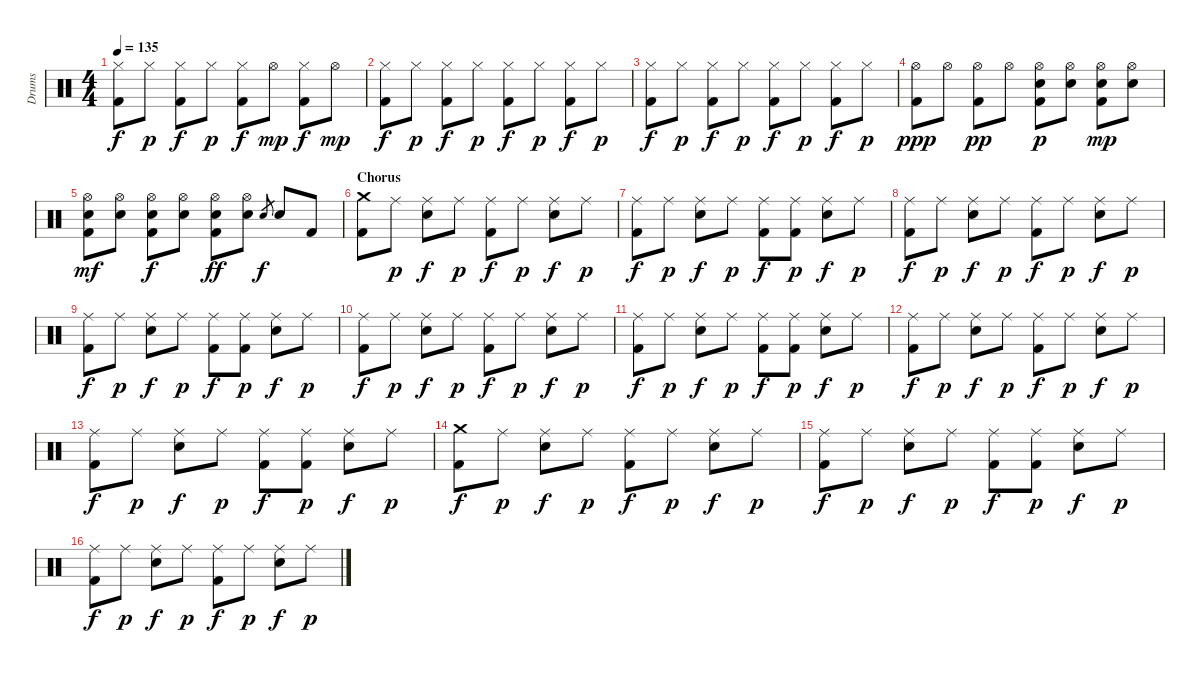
\track ("Drums" "Drums") {instrument percussion}
\staff {score}
\articulation defaults
\ts (4 4)
\tempo 135
\clef neutral
\ks c
("Hi-Hat (closed)" "Kick (hit) 2").8{dy f} "Hi-Hat (closed)".8{dy p} ("Hi-Hat (closed)" "Kick (hit) 2").8{dy f} "Hi-Hat (closed)".8{dy p} ("Hi-Hat (closed)" "Kick (hit) 2").8{dy f} "Hi-Hat (open)".8{dy mp} ("Hi-Hat (closed)" "Kick (hit) 2").8{dy f} "Hi-Hat (open)".8{dy mp} |
("Hi-Hat (closed)" "Kick (hit) 2").8{dy f} "Hi-Hat (closed)".8{dy p} ("Hi-Hat (closed)" "Kick (hit) 2").8{dy f} "Hi-Hat (closed)".8{dy p} ("Hi-Hat (closed)" "Kick (hit) 2").8{dy f} "Hi-Hat (closed)".8{dy p} ("Hi-Hat (closed)" "Kick (hit) 2").8{dy f} "Hi-Hat (closed)".8{dy p} |
("Hi-Hat (closed)" "Kick (hit) 2").8{dy f} "Hi-Hat (closed)".8{dy p} ("Hi-Hat (closed)" "Kick (hit) 2").8{dy f} "Hi-Hat (closed)".8{dy p} ("Hi-Hat (closed)" "Kick (hit) 2").8{dy f} "Hi-Hat (closed)".8{dy p} ("Hi-Hat (closed)" "Kick (hit) 2").8{dy f} "Hi-Hat (closed)".8{dy p} |
("Hi-Hat (open)" "Kick (hit) 2").8{dy ppp} "Hi-Hat (open)".8 ("Hi-Hat (open)" "Kick (hit) 2").8{dy pp} "Hi-Hat (open)".8 ("Hi-Hat (open)" "Snare (hit) 2" "Kick (hit) 2").8{dy p} ("Hi-Hat (open)" "Snare (hit) 2").8 ("Hi-Hat (open)" "Snare (hit) 2" "Kick (hit) 2").8{dy mp} ("Hi-Hat (open)" "Snare (hit) 2").8 |
("Hi-Hat (open)" "Snare (hit) 2" "Kick (hit) 2").8{dy mf} ("Hi-Hat (open)" "Snare (hit) 2").8 ("Hi-Hat (open)" "Snare (hit) 2" "Kick (hit) 2").8{dy f} ("Hi-Hat (open)" "Snare (hit) 2").8 ("Hi-Hat (open)" "Snare (hit) 2" "Kick (hit) 2").8{dy ff} ("Hi-Hat (open)" "Snare (hit) 2").8 "Snare (hit) 2".8{gr dy f} "Snare (hit) 2".8 "Kick (hit) 2".8 |
\section ("" "Chorus")
("Crash medium (hit)" "Kick (hit) 2").8 "Ride (middle)".8{dy p} ("Ride (middle)" "Snare (hit) 2").8{dy f} "Ride (middle)".8{dy p} ("Ride (middle)" "Kick (hit) 2").8{dy f} "Ride (middle)".8{dy p} ("Ride (middle)" "Snare (hit) 2").8{dy f} "Ride (middle)".8{dy p} |
("Ride (middle)" "Kick (hit) 2").8{dy f} "Ride (middle)".8{dy p} ("Ride (middle)" "Snare (hit) 2").8{dy f} "Ride (middle)".8{dy p} ("Ride (middle)" "Kick (hit) 2").8{dy f} ("Ride (middle)" "Kick (hit) 2").8{dy p} ("Ride (middle)" "Snare (hit) 2").8{dy f} "Ride (middle)".8{dy p} |
("Ride (middle)" "Kick (hit) 2").8{dy f} "Ride (middle)".8{dy p} ("Ride (middle)" "Snare (hit) 2").8{dy f} "Ride (middle)".8{dy p} ("Ride (middle)" "Kick (hit) 2").8{dy f} "Ride (middle)".8{dy p} ("Ride (middle)" "Snare (hit) 2").8{dy f} "Ride (middle)".8{dy p} |
("Ride (middle)" "Kick (hit) 2").8{dy f} "Ride (middle)".8{dy p} ("Ride (middle)" "Snare (hit) 2").8{dy f} "Ride (middle)".8{dy p} ("Ride (middle)" "Kick (hit) 2").8{dy f} ("Ride (middle)" "Kick (hit) 2").8{dy p} ("Ride (middle)" "Snare (hit) 2").8{dy f} "Ride (middle)".8{dy p} |
("Ride (middle)" "Kick (hit) 2").8{dy f} "Ride (middle)".8{dy p} ("Ride (middle)" "Snare (hit) 2").8{dy f} "Ride (middle)".8{dy p} ("Ride (middle)" "Kick (hit) 2").8{dy f} "Ride (middle)".8{dy p} ("Ride (middle)" "Snare (hit) 2").8{dy f} "Ride (middle)".8{dy p} |
("Ride (middle)" "Kick (hit) 2").8{dy f} "Ride (middle)".8{dy p} ("Ride (middle)" "Snare (hit) 2").8{dy f} "Ride (middle)".8{dy p} ("Ride (middle)" "Kick (hit) 2").8{dy f} ("Ride (middle)" "Kick (hit) 2").8{dy p} ("Ride (middle)" "Snare (hit) 2").8{dy f} "Ride (middle)".8{dy p} |
("Ride (middle)" "Kick (hit) 2").8{dy f} "Ride (middle)".8{dy p} ("Ride (middle)" "Snare (hit) 2").8{dy f} "Ride (middle)".8{dy p} ("Ride (middle)" "Kick (hit) 2").8{dy f} "Ride (middle)".8{dy p} ("Ride (middle)" "Snare (hit) 2").8{dy f} "Ride (middle)".8{dy p} |
("Ride (middle)" "Kick (hit) 2").8{dy f} "Ride (middle)".8{dy p} ("Ride (middle)" "Snare (hit) 2").8{dy f} "Ride (middle)".8{dy p} ("Ride (middle)" "Kick (hit) 2").8{dy f} ("Ride (middle)" "Kick (hit) 2").8{dy p} ("Ride (middle)" "Snare (hit) 2").8{dy f} "Ride (middle)".8{dy p} |
("Crash medium (hit)" "Kick (hit) 2").8{dy f} "Ride (middle)".8{dy p} ("Ride (middle)" "Snare (hit) 2").8{dy f} "Ride (middle)".8{dy p} ("Ride (middle)" "Kick (hit) 2").8{dy f} "Ride (middle)".8{dy p} ("Ride (middle)" "Snare (hit) 2").8{dy f} "Ride (middle)".8{dy p} |
("Ride (middle)" "Kick (hit) 2").8{dy f} "Ride (middle)".8{dy p} ("Ride (middle)" "Snare (hit) 2").8{dy f} "Ride (middle)".8{dy p} ("Ride (middle)" "Kick (hit) 2").8{dy f} ("Ride (middle)" "Kick (hit) 2").8{dy p} ("Ride (middle)" "Snare (hit) 2").8{dy f} "Ride (middle)".8{dy p} |
("Ride (middle)" "Kick (hit) 2").8{dy f} "Ride (middle)".8{dy p} ("Ride (middle)" "Snare (hit) 2").8{dy f} "Ride (middle)".8{dy p} ("Ride (middle)" "Kick (hit) 2").8{dy f} "Ride (middle)".8{dy p} ("Ride (middle)" "Snare (hit) 2").8{dy f} "Ride (middle)".8{dy p}
